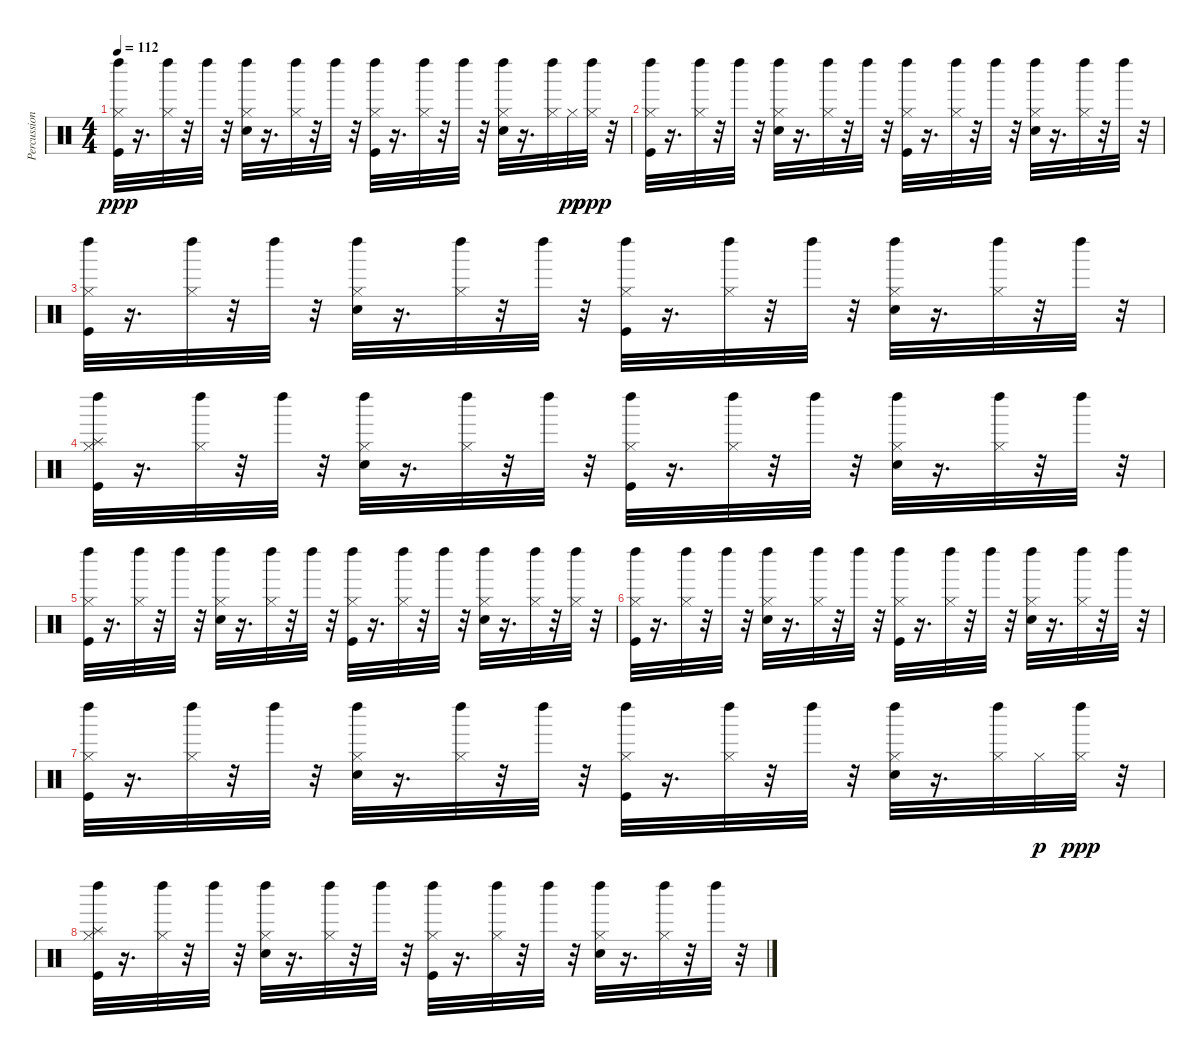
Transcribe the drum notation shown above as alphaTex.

\track ("Percussioni" "Percussion") {instrument percussion}
\staff {score}
\articulation defaults
\ts (4 4)
\tempo 112
\clef neutral
\ks c
("Kick (hit)" "Hi-Hat (closed)" "Left Maraca (hit)").32{dy ppp} r.16{d} ("Hi-Hat (closed)" "Left Maraca (hit)").32 r.32 "Left Maraca (hit)".32 r.32 ("Electric Snare (hit)" "Hi-Hat (closed)" "Left Maraca (hit)").32 r.16{d} ("Hi-Hat (closed)" "Left Maraca (hit)").32 r.32 "Left Maraca (hit)".32 r.32 ("Kick (hit)" "Hi-Hat (closed)" "Left Maraca (hit)").32 r.16{d} ("Hi-Hat (closed)" "Left Maraca (hit)").32 r.32 "Left Maraca (hit)".32 r.32 ("Electric Snare (hit)" "Hi-Hat (closed)" "Left Maraca (hit)").32 r.16{d} ("Hi-Hat (closed)" "Left Maraca (hit)").32 "Hi-Hat (closed)".32{dy pp} ("Hi-Hat (closed)" "Left Maraca (hit)").32{dy ppp} r.32 |
("Kick (hit)" "Hi-Hat (closed)" "Left Maraca (hit)").32 r.16{d} ("Hi-Hat (closed)" "Left Maraca (hit)").32 r.32 "Left Maraca (hit)".32 r.32 ("Electric Snare (hit)" "Hi-Hat (closed)" "Left Maraca (hit)").32 r.16{d} ("Hi-Hat (closed)" "Left Maraca (hit)").32 r.32 "Left Maraca (hit)".32 r.32 ("Kick (hit)" "Hi-Hat (closed)" "Left Maraca (hit)").32 r.16{d} ("Hi-Hat (closed)" "Left Maraca (hit)").32 r.32 "Left Maraca (hit)".32 r.32 ("Electric Snare (hit)" "Hi-Hat (closed)" "Left Maraca (hit)").32 r.16{d} ("Hi-Hat (closed)" "Left Maraca (hit)").32 r.32 "Left Maraca (hit)".32 r.32 |
("Kick (hit)" "Hi-Hat (closed)" "Left Maraca (hit)").32 r.16{d} ("Hi-Hat (closed)" "Left Maraca (hit)").32 r.32 "Left Maraca (hit)".32 r.32 ("Electric Snare (hit)" "Hi-Hat (closed)" "Left Maraca (hit)").32 r.16{d} ("Hi-Hat (closed)" "Left Maraca (hit)").32 r.32 "Left Maraca (hit)".32 r.32 ("Kick (hit)" "Hi-Hat (closed)" "Left Maraca (hit)").32 r.16{d} ("Hi-Hat (closed)" "Left Maraca (hit)").32 r.32 "Left Maraca (hit)".32 r.32 ("Electric Snare (hit)" "Hi-Hat (closed)" "Left Maraca (hit)").32 r.16{d} ("Hi-Hat (closed)" "Left Maraca (hit)").32 r.32 "Left Maraca (hit)".32 r.32 |
("Kick (hit)" "Hi-Hat (closed)" "Splash (hit)" "Left Maraca (hit)").32 r.16{d} ("Hi-Hat (closed)" "Left Maraca (hit)").32 r.32 "Left Maraca (hit)".32 r.32 ("Electric Snare (hit)" "Hi-Hat (closed)" "Left Maraca (hit)").32 r.16{d} ("Hi-Hat (closed)" "Left Maraca (hit)").32 r.32 "Left Maraca (hit)".32 r.32 ("Kick (hit)" "Hi-Hat (closed)" "Left Maraca (hit)").32 r.16{d} ("Hi-Hat (closed)" "Left Maraca (hit)").32 r.32 "Left Maraca (hit)".32 r.32 ("Electric Snare (hit)" "Hi-Hat (closed)" "Left Maraca (hit)").32 r.16{d} ("Hi-Hat (closed)" "Left Maraca (hit)").32 r.32 "Left Maraca (hit)".32 r.32 |
("Kick (hit)" "Hi-Hat (closed)" "Left Maraca (hit)").32 r.16{d} ("Hi-Hat (closed)" "Left Maraca (hit)").32 r.32 "Left Maraca (hit)".32 r.32 ("Electric Snare (hit)" "Hi-Hat (closed)" "Left Maraca (hit)").32 r.16{d} ("Hi-Hat (closed)" "Left Maraca (hit)").32 r.32 "Left Maraca (hit)".32 r.32 ("Kick (hit)" "Hi-Hat (closed)" "Left Maraca (hit)").32 r.16{d} ("Hi-Hat (closed)" "Left Maraca (hit)").32 r.32 "Left Maraca (hit)".32 r.32 ("Electric Snare (hit)" "Hi-Hat (closed)" "Left Maraca (hit)").32 r.16{d} ("Hi-Hat (closed)" "Left Maraca (hit)").32 r.32 ("Hi-Hat (closed)" "Left Maraca (hit)").32 r.32 |
("Kick (hit)" "Hi-Hat (closed)" "Left Maraca (hit)").32 r.16{d} ("Hi-Hat (closed)" "Left Maraca (hit)").32 r.32 "Left Maraca (hit)".32 r.32 ("Electric Snare (hit)" "Hi-Hat (closed)" "Left Maraca (hit)").32 r.16{d} ("Hi-Hat (closed)" "Left Maraca (hit)").32 r.32 "Left Maraca (hit)".32 r.32 ("Kick (hit)" "Hi-Hat (closed)" "Left Maraca (hit)").32 r.16{d} ("Hi-Hat (closed)" "Left Maraca (hit)").32 r.32 "Left Maraca (hit)".32 r.32 ("Electric Snare (hit)" "Hi-Hat (closed)" "Left Maraca (hit)").32 r.16{d} ("Hi-Hat (closed)" "Left Maraca (hit)").32 r.32 "Left Maraca (hit)".32 r.32 |
("Kick (hit)" "Hi-Hat (closed)" "Left Maraca (hit)").32 r.16{d} ("Hi-Hat (closed)" "Left Maraca (hit)").32 r.32 "Left Maraca (hit)".32 r.32 ("Electric Snare (hit)" "Hi-Hat (closed)" "Left Maraca (hit)").32 r.16{d} ("Hi-Hat (closed)" "Left Maraca (hit)").32 r.32 "Left Maraca (hit)".32 r.32 ("Kick (hit)" "Hi-Hat (closed)" "Left Maraca (hit)").32 r.16{d} ("Hi-Hat (closed)" "Left Maraca (hit)").32 r.32 "Left Maraca (hit)".32 r.32 ("Electric Snare (hit)" "Hi-Hat (closed)" "Left Maraca (hit)").32 r.16{d} ("Hi-Hat (closed)" "Left Maraca (hit)").32 "Hi-Hat (closed)".32{dy p} ("Hi-Hat (closed)" "Left Maraca (hit)").32{dy ppp} r.32 |
("Kick (hit)" "Hi-Hat (closed)" "Splash (hit)" "Left Maraca (hit)").32 r.16{d} ("Hi-Hat (closed)" "Left Maraca (hit)").32 r.32 "Left Maraca (hit)".32 r.32 ("Electric Snare (hit)" "Hi-Hat (closed)" "Left Maraca (hit)").32 r.16{d} ("Hi-Hat (closed)" "Left Maraca (hit)").32 r.32 "Left Maraca (hit)".32 r.32 ("Kick (hit)" "Hi-Hat (closed)" "Left Maraca (hit)").32 r.16{d} ("Hi-Hat (closed)" "Left Maraca (hit)").32 r.32 "Left Maraca (hit)".32 r.32 ("Electric Snare (hit)" "Hi-Hat (closed)" "Left Maraca (hit)").32 r.16{d} ("Hi-Hat (closed)" "Left Maraca (hit)").32 r.32 "Left Maraca (hit)".32 r.32
